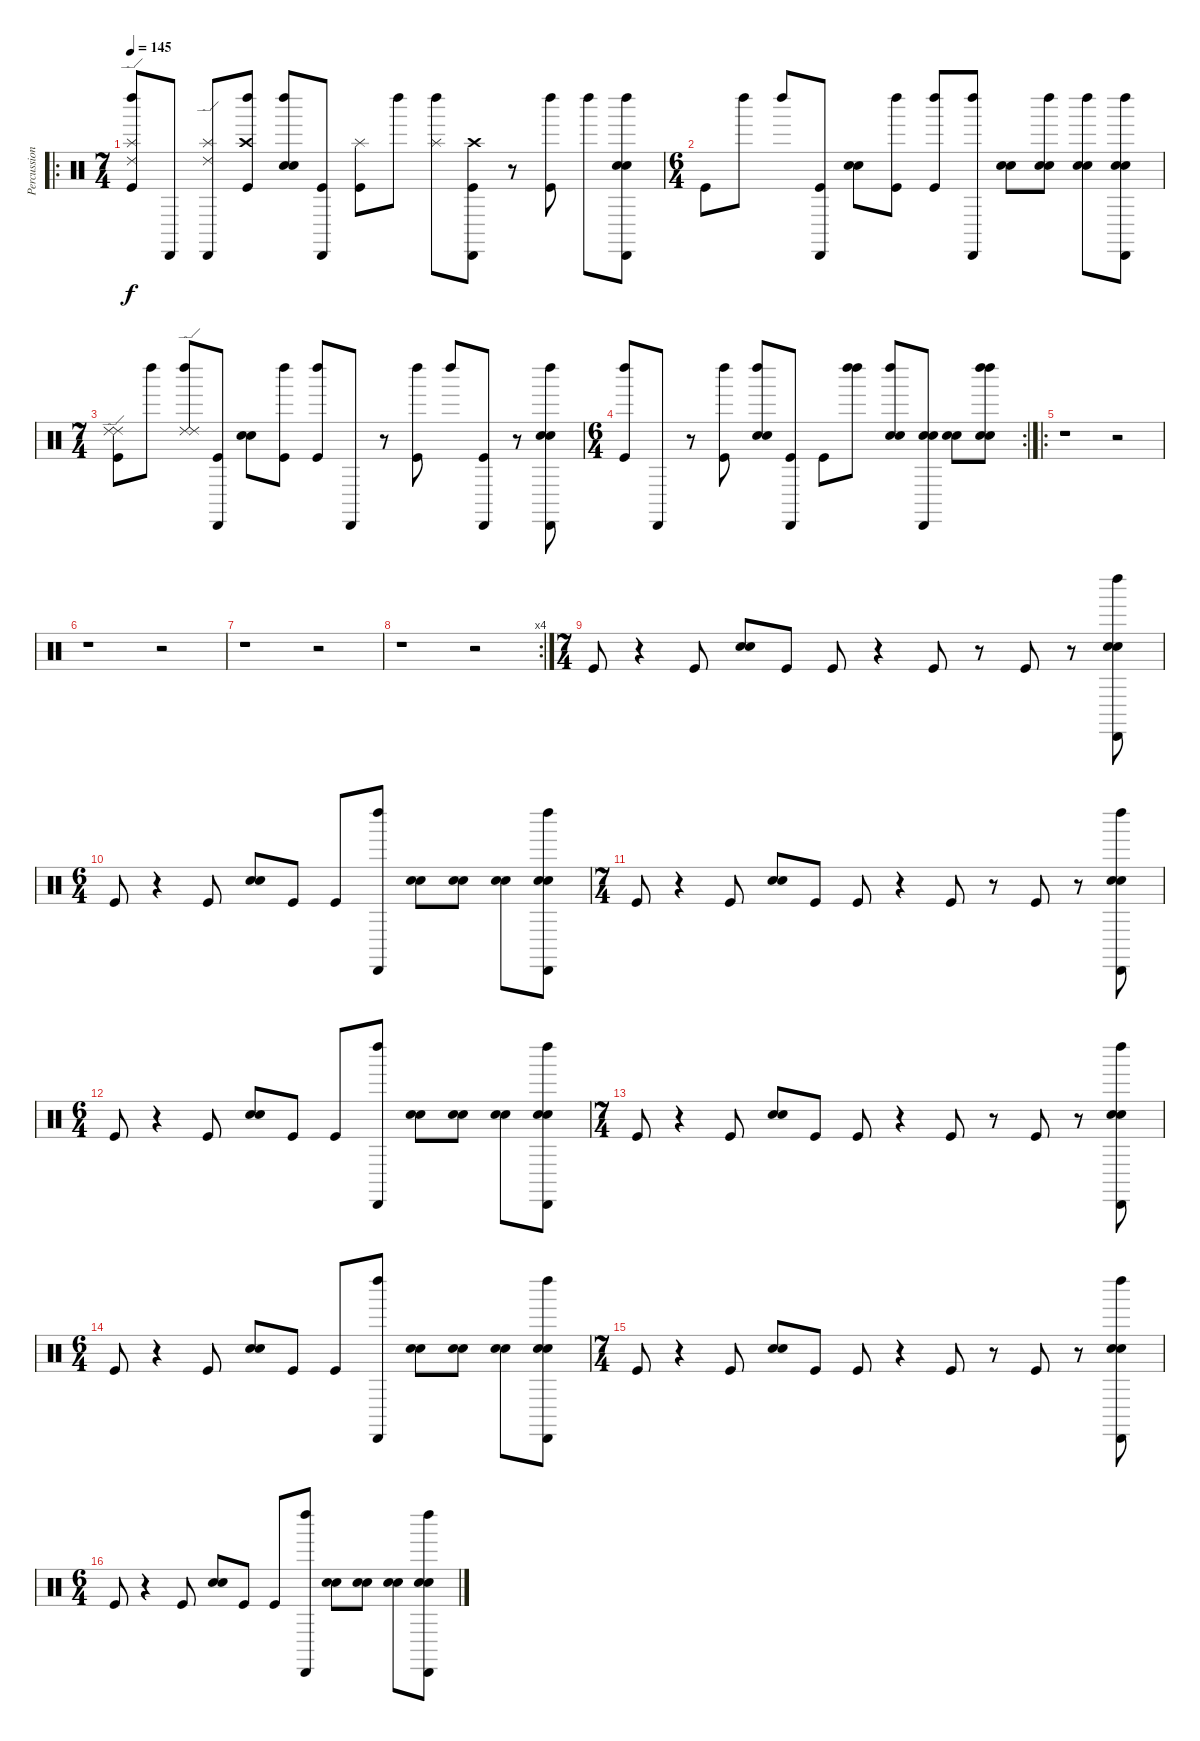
\track ("Percussion" "Percussion") {instrument percussion}
\staff {score}
\articulation defaults
\ro
\ts (7 4)
\tempo 145
\clef neutral
\ks c
("Ride (edge) 2" "Left Maraca (hit)" "Splash (hit)" "Kick (hit)").8{dy f} "Cabasa (hit)".8 ("Ride (edge) 2" "Cabasa (hit)" "Splash (hit)").8 ("Left Maraca (hit)" "Crash high (hit)" "Kick (hit)").8 ("Left Maraca (hit)" "Electric Snare (hit)" "Snare (hit) 2").8 ("Cabasa (hit)" "Kick (hit)").8 ("Splash (hit)" "Kick (hit)").8 "Left Maraca (hit)".8 ("Left Maraca (hit)" "Splash (hit)").8 ("Cabasa (hit)" "Crash high (hit)" "Kick (hit)").8 r.8 ("Left Maraca (hit)" "Kick (hit)").8 "Left Maraca (hit)".8 ("Cabasa (hit)" "Left Maraca (hit)" "Electric Snare (hit)" "Snare (hit) 2").8 |
\ts (6 4)
"Kick (hit)".8 "Left Maraca (hit)".8 "Left Maraca (hit)".8 ("Cabasa (hit)" "Kick (hit)").8 ("Electric Snare (hit)" "Snare (hit) 2").8 ("Left Maraca (hit)" "Kick (hit)").8 ("Left Maraca (hit)" "Kick (hit)").8 ("Left Maraca (hit)" "Cabasa (hit)").8 ("Electric Snare (hit)" "Snare (hit) 2").8 ("Left Maraca (hit)" "Electric Snare (hit)" "Snare (hit) 2").8 ("Left Maraca (hit)" "Electric Snare (hit)" "Snare (hit) 2").8 ("Left Maraca (hit)" "Cabasa (hit)" "Electric Snare (hit)" "Snare (hit) 2").8 |
\ts (7 4)
("Ride (edge) 2" "Ride (edge) 2" "Kick (hit)").8 "Left Maraca (hit)".8 ("Ride (edge) 2" "Left Maraca (hit)" "Ride (edge) 2").8 ("Cabasa (hit)" "Kick (hit)").8 ("Electric Snare (hit)" "Snare (hit) 2").8 ("Left Maraca (hit)" "Kick (hit)").8 ("Left Maraca (hit)" "Kick (hit)").8 "Cabasa (hit)".8 r.8 ("Left Maraca (hit)" "Kick (hit)").8 "Left Maraca (hit)".8 ("Cabasa (hit)" "Kick (hit)").8 r.8 ("Cabasa (hit)" "Left Maraca (hit)" "Electric Snare (hit)" "Snare (hit) 2").8 |
\rc 2
\ts (6 4)
("Left Maraca (hit)" "Kick (hit)").8 "Cabasa (hit)".8 r.8 ("Left Maraca (hit)" "Kick (hit)").8 ("Left Maraca (hit)" "Electric Snare (hit)" "Snare (hit) 2").8 ("Cabasa (hit)" "Kick (hit)").8 "Kick (hit)".8 ("Left Maraca (hit)" "Left Maraca (hit)").8 ("Left Maraca (hit)" "Electric Snare (hit)" "Snare (hit) 2").8 ("Cabasa (hit)" "Electric Snare (hit)" "Snare (hit) 2").8 ("Electric Snare (hit)" "Snare (hit) 2").8 ("Left Maraca (hit)" "Left Maraca (hit)" "Electric Snare (hit)" "Snare (hit) 2").8 |
\ro
r.1 r.2 |
r.1 r.2 |
r.1 r.2 |
\rc 4
r.1 r.2 |
\ts (7 4)
"Kick (hit)".8 r.4 "Kick (hit)".8 ("Electric Snare (hit)" "Snare (hit) 2").8 "Kick (hit)".8 "Kick (hit)".8 r.4 "Kick (hit)".8 r.8 "Kick (hit)".8 r.8 ("Cabasa (hit)" "Left Maraca (hit)" "Electric Snare (hit)" "Snare (hit) 2").8 |
\ts (6 4)
"Kick (hit)".8 r.4 "Kick (hit)".8 ("Electric Snare (hit)" "Snare (hit) 2").8 "Kick (hit)".8 "Kick (hit)".8 ("Left Maraca (hit)" "Cabasa (hit)").8 ("Electric Snare (hit)" "Snare (hit) 2").8 ("Electric Snare (hit)" "Snare (hit) 2").8 ("Electric Snare (hit)" "Snare (hit) 2").8 ("Left Maraca (hit)" "Cabasa (hit)" "Electric Snare (hit)" "Snare (hit) 2").8 |
\ts (7 4)
"Kick (hit)".8 r.4 "Kick (hit)".8 ("Electric Snare (hit)" "Snare (hit) 2").8 "Kick (hit)".8 "Kick (hit)".8 r.4 "Kick (hit)".8 r.8 "Kick (hit)".8 r.8 ("Cabasa (hit)" "Left Maraca (hit)" "Electric Snare (hit)" "Snare (hit) 2").8 |
\ts (6 4)
"Kick (hit)".8 r.4 "Kick (hit)".8 ("Electric Snare (hit)" "Snare (hit) 2").8 "Kick (hit)".8 "Kick (hit)".8 ("Left Maraca (hit)" "Cabasa (hit)").8 ("Electric Snare (hit)" "Snare (hit) 2").8 ("Electric Snare (hit)" "Snare (hit) 2").8 ("Electric Snare (hit)" "Snare (hit) 2").8 ("Left Maraca (hit)" "Cabasa (hit)" "Electric Snare (hit)" "Snare (hit) 2").8 |
\ts (7 4)
"Kick (hit)".8 r.4 "Kick (hit)".8 ("Electric Snare (hit)" "Snare (hit) 2").8 "Kick (hit)".8 "Kick (hit)".8 r.4 "Kick (hit)".8 r.8 "Kick (hit)".8 r.8 ("Cabasa (hit)" "Left Maraca (hit)" "Electric Snare (hit)" "Snare (hit) 2").8 |
\ts (6 4)
"Kick (hit)".8 r.4 "Kick (hit)".8 ("Electric Snare (hit)" "Snare (hit) 2").8 "Kick (hit)".8 "Kick (hit)".8 ("Left Maraca (hit)" "Cabasa (hit)").8 ("Electric Snare (hit)" "Snare (hit) 2").8 ("Electric Snare (hit)" "Snare (hit) 2").8 ("Electric Snare (hit)" "Snare (hit) 2").8 ("Left Maraca (hit)" "Cabasa (hit)" "Electric Snare (hit)" "Snare (hit) 2").8 |
\ts (7 4)
"Kick (hit)".8 r.4 "Kick (hit)".8 ("Electric Snare (hit)" "Snare (hit) 2").8 "Kick (hit)".8 "Kick (hit)".8 r.4 "Kick (hit)".8 r.8 "Kick (hit)".8 r.8 ("Cabasa (hit)" "Left Maraca (hit)" "Electric Snare (hit)" "Snare (hit) 2").8 |
\ts (6 4)
"Kick (hit)".8 r.4 "Kick (hit)".8 ("Electric Snare (hit)" "Snare (hit) 2").8 "Kick (hit)".8 "Kick (hit)".8 ("Left Maraca (hit)" "Cabasa (hit)").8 ("Electric Snare (hit)" "Snare (hit) 2").8 ("Electric Snare (hit)" "Snare (hit) 2").8 ("Electric Snare (hit)" "Snare (hit) 2").8 ("Left Maraca (hit)" "Cabasa (hit)" "Electric Snare (hit)" "Snare (hit) 2").8
